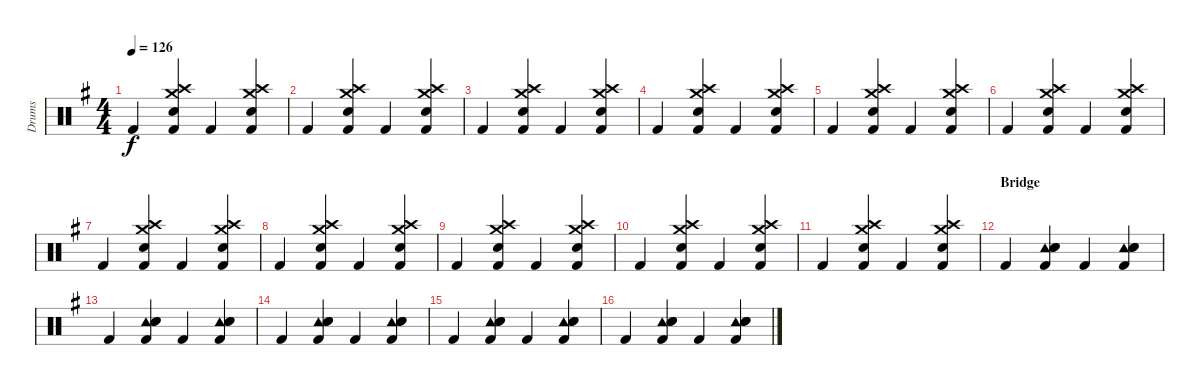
\track ("Drums" "Drums") {instrument percussion}
\staff {score}
\articulation defaults
\ts (4 4)
\tempo 126
\clef neutral
\ks g "Kick (hit) 2".4{dy f}
("Crash medium (hit)" "Crash high (hit)" "Snare (hit) 2" "Kick (hit) 2").4 "Kick (hit) 2".4 ("Crash medium (hit)" "Crash high (hit)" "Snare (hit) 2" "Kick (hit) 2").4 |
"Kick (hit) 2".4 ("Crash medium (hit)" "Crash high (hit)" "Snare (hit) 2" "Kick (hit) 2").4 "Kick (hit) 2".4 ("Crash medium (hit)" "Crash high (hit)" "Snare (hit) 2" "Kick (hit) 2").4 |
"Kick (hit) 2".4 ("Crash medium (hit)" "Crash high (hit)" "Snare (hit) 2" "Kick (hit) 2").4 "Kick (hit) 2".4 ("Crash medium (hit)" "Crash high (hit)" "Snare (hit) 2" "Kick (hit) 2").4 |
"Kick (hit) 2".4 ("Crash medium (hit)" "Crash high (hit)" "Snare (hit) 2" "Kick (hit) 2").4 "Kick (hit) 2".4 ("Crash medium (hit)" "Crash high (hit)" "Snare (hit) 2" "Kick (hit) 2").4 |
"Kick (hit) 2".4 ("Crash medium (hit)" "Crash high (hit)" "Snare (hit) 2" "Kick (hit) 2").4 "Kick (hit) 2".4 ("Crash medium (hit)" "Crash high (hit)" "Snare (hit) 2" "Kick (hit) 2").4 |
"Kick (hit) 2".4 ("Crash medium (hit)" "Crash high (hit)" "Snare (hit) 2" "Kick (hit) 2").4 "Kick (hit) 2".4 ("Crash medium (hit)" "Crash high (hit)" "Snare (hit) 2" "Kick (hit) 2").4 |
"Kick (hit) 2".4 ("Crash medium (hit)" "Crash high (hit)" "Snare (hit) 2" "Kick (hit) 2").4 "Kick (hit) 2".4 ("Crash medium (hit)" "Crash high (hit)" "Snare (hit) 2" "Kick (hit) 2").4 |
"Kick (hit) 2".4 ("Crash medium (hit)" "Crash high (hit)" "Snare (hit) 2" "Kick (hit) 2").4 "Kick (hit) 2".4 ("Crash medium (hit)" "Crash high (hit)" "Snare (hit) 2" "Kick (hit) 2").4 |
"Kick (hit) 2".4 ("Crash medium (hit)" "Crash high (hit)" "Snare (hit) 2" "Kick (hit) 2").4 "Kick (hit) 2".4 ("Crash medium (hit)" "Crash high (hit)" "Snare (hit) 2" "Kick (hit) 2").4 |
"Kick (hit) 2".4 ("Crash medium (hit)" "Crash high (hit)" "Snare (hit) 2" "Kick (hit) 2").4 "Kick (hit) 2".4 ("Crash medium (hit)" "Crash high (hit)" "Snare (hit) 2" "Kick (hit) 2").4 |
"Kick (hit) 2".4 ("Crash medium (hit)" "Crash high (hit)" "Snare (hit) 2" "Kick (hit) 2").4 "Kick (hit) 2".4 ("Crash medium (hit)" "Crash high (hit)" "Snare (hit) 2" "Kick (hit) 2").4 |
\section ("" "Bridge")
"Kick (hit) 2".4 ("Tambourine (hit)" "Hand Clap (hit)" "Snare (hit) 2" "Kick (hit) 2").4 "Kick (hit) 2".4 ("Tambourine (hit)" "Hand Clap (hit)" "Snare (hit) 2" "Kick (hit) 2").4 |
"Kick (hit) 2".4 ("Tambourine (hit)" "Hand Clap (hit)" "Snare (hit) 2" "Kick (hit) 2").4 "Kick (hit) 2".4 ("Tambourine (hit)" "Hand Clap (hit)" "Snare (hit) 2" "Kick (hit) 2").4 |
"Kick (hit) 2".4 ("Tambourine (hit)" "Hand Clap (hit)" "Snare (hit) 2" "Kick (hit) 2").4 "Kick (hit) 2".4 ("Tambourine (hit)" "Hand Clap (hit)" "Snare (hit) 2" "Kick (hit) 2").4 |
"Kick (hit) 2".4 ("Tambourine (hit)" "Hand Clap (hit)" "Snare (hit) 2" "Kick (hit) 2").4 "Kick (hit) 2".4 ("Tambourine (hit)" "Hand Clap (hit)" "Snare (hit) 2" "Kick (hit) 2").4 |
"Kick (hit) 2".4 ("Tambourine (hit)" "Hand Clap (hit)" "Snare (hit) 2" "Kick (hit) 2").4 "Kick (hit) 2".4 ("Tambourine (hit)" "Hand Clap (hit)" "Snare (hit) 2" "Kick (hit) 2").4
